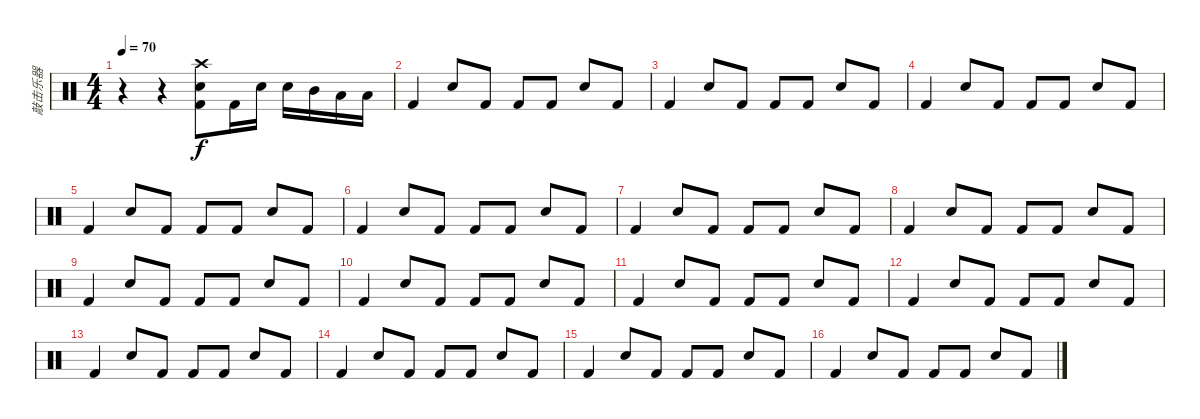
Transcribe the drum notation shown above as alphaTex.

\track ("敲击乐器" "敲击乐器") {instrument percussion}
\staff {score}
\articulation defaults
\ts (4 4)
\tempo 70
\clef neutral
\ks c
r.4{dy f} r.4 ("Crash high (hit)" "Kick (hit) 2" "Snare (hit) 2").8 "Kick (hit) 2".16 "Snare (hit) 2".16 "Snare (hit) 2".16 "Mid Tom (hit)".16 "Low Tom (hit)".16 "Low Floor Tom (hit)".16 |
"Kick (hit) 2".4 "Snare (hit) 2".8 "Kick (hit) 2".8 "Kick (hit) 2".8 "Kick (hit) 2".8 "Snare (hit) 2".8 "Kick (hit) 2".8 |
"Kick (hit) 2".4 "Snare (hit) 2".8 "Kick (hit) 2".8 "Kick (hit) 2".8 "Kick (hit) 2".8 "Snare (hit) 2".8 "Kick (hit) 2".8 |
"Kick (hit) 2".4 "Snare (hit) 2".8 "Kick (hit) 2".8 "Kick (hit) 2".8 "Kick (hit) 2".8 "Snare (hit) 2".8 "Kick (hit) 2".8 |
"Kick (hit) 2".4 "Snare (hit) 2".8 "Kick (hit) 2".8 "Kick (hit) 2".8 "Kick (hit) 2".8 "Snare (hit) 2".8 "Kick (hit) 2".8 |
"Kick (hit) 2".4 "Snare (hit) 2".8 "Kick (hit) 2".8 "Kick (hit) 2".8 "Kick (hit) 2".8 "Snare (hit) 2".8 "Kick (hit) 2".8 |
"Kick (hit) 2".4 "Snare (hit) 2".8 "Kick (hit) 2".8 "Kick (hit) 2".8 "Kick (hit) 2".8 "Snare (hit) 2".8 "Kick (hit) 2".8 |
"Kick (hit) 2".4 "Snare (hit) 2".8 "Kick (hit) 2".8 "Kick (hit) 2".8 "Kick (hit) 2".8 "Snare (hit) 2".8 "Kick (hit) 2".8 |
"Kick (hit) 2".4 "Snare (hit) 2".8 "Kick (hit) 2".8 "Kick (hit) 2".8 "Kick (hit) 2".8 "Snare (hit) 2".8 "Kick (hit) 2".8 |
"Kick (hit) 2".4 "Snare (hit) 2".8 "Kick (hit) 2".8 "Kick (hit) 2".8 "Kick (hit) 2".8 "Snare (hit) 2".8 "Kick (hit) 2".8 |
"Kick (hit) 2".4 "Snare (hit) 2".8 "Kick (hit) 2".8 "Kick (hit) 2".8 "Kick (hit) 2".8 "Snare (hit) 2".8 "Kick (hit) 2".8 |
"Kick (hit) 2".4 "Snare (hit) 2".8 "Kick (hit) 2".8 "Kick (hit) 2".8 "Kick (hit) 2".8 "Snare (hit) 2".8 "Kick (hit) 2".8 |
"Kick (hit) 2".4 "Snare (hit) 2".8 "Kick (hit) 2".8 "Kick (hit) 2".8 "Kick (hit) 2".8 "Snare (hit) 2".8 "Kick (hit) 2".8 |
"Kick (hit) 2".4 "Snare (hit) 2".8 "Kick (hit) 2".8 "Kick (hit) 2".8 "Kick (hit) 2".8 "Snare (hit) 2".8 "Kick (hit) 2".8 |
"Kick (hit) 2".4 "Snare (hit) 2".8 "Kick (hit) 2".8 "Kick (hit) 2".8 "Kick (hit) 2".8 "Snare (hit) 2".8 "Kick (hit) 2".8 |
"Kick (hit) 2".4 "Snare (hit) 2".8 "Kick (hit) 2".8 "Kick (hit) 2".8 "Kick (hit) 2".8 "Snare (hit) 2".8 "Kick (hit) 2".8
